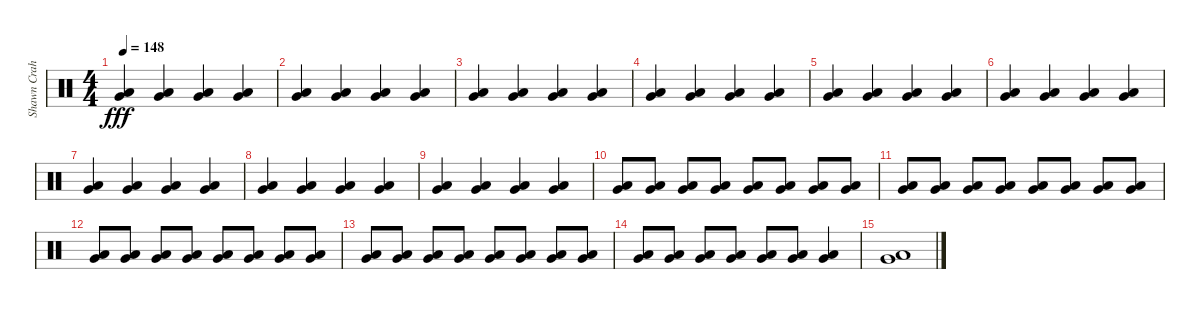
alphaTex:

\track ("Shawn Crahan" "Shawn Crah") {instrument percussion}
\staff {score}
\articulation defaults
\ts (4 4)
\tempo 148
\clef neutral
\ks c
("Very Low Tom (hit)" "Low Floor Tom (hit)").4{dy fff} ("Very Low Tom (hit)" "Low Floor Tom (hit)").4 ("Very Low Tom (hit)" "Low Floor Tom (hit)").4 ("Very Low Tom (hit)" "Low Floor Tom (hit)").4 |
("Very Low Tom (hit)" "Low Floor Tom (hit)").4 ("Very Low Tom (hit)" "Low Floor Tom (hit)").4 ("Very Low Tom (hit)" "Low Floor Tom (hit)").4 ("Very Low Tom (hit)" "Low Floor Tom (hit)").4 |
("Very Low Tom (hit)" "Low Floor Tom (hit)").4 ("Very Low Tom (hit)" "Low Floor Tom (hit)").4 ("Very Low Tom (hit)" "Low Floor Tom (hit)").4 ("Very Low Tom (hit)" "Low Floor Tom (hit)").4 |
("Very Low Tom (hit)" "Low Floor Tom (hit)").4 ("Very Low Tom (hit)" "Low Floor Tom (hit)").4 ("Very Low Tom (hit)" "Low Floor Tom (hit)").4 ("Very Low Tom (hit)" "Low Floor Tom (hit)").4 |
("Very Low Tom (hit)" "Low Floor Tom (hit)").4 ("Very Low Tom (hit)" "Low Floor Tom (hit)").4 ("Very Low Tom (hit)" "Low Floor Tom (hit)").4 ("Very Low Tom (hit)" "Low Floor Tom (hit)").4 |
("Very Low Tom (hit)" "Low Floor Tom (hit)").4 ("Very Low Tom (hit)" "Low Floor Tom (hit)").4 ("Very Low Tom (hit)" "Low Floor Tom (hit)").4 ("Very Low Tom (hit)" "Low Floor Tom (hit)").4 |
("Very Low Tom (hit)" "Low Floor Tom (hit)").4 ("Very Low Tom (hit)" "Low Floor Tom (hit)").4 ("Very Low Tom (hit)" "Low Floor Tom (hit)").4 ("Very Low Tom (hit)" "Low Floor Tom (hit)").4 |
("Very Low Tom (hit)" "Low Floor Tom (hit)").4 ("Very Low Tom (hit)" "Low Floor Tom (hit)").4 ("Very Low Tom (hit)" "Low Floor Tom (hit)").4 ("Very Low Tom (hit)" "Low Floor Tom (hit)").4 |
("Very Low Tom (hit)" "Low Floor Tom (hit)").4 ("Very Low Tom (hit)" "Low Floor Tom (hit)").4 ("Very Low Tom (hit)" "Low Floor Tom (hit)").4 ("Very Low Tom (hit)" "Low Floor Tom (hit)").4 |
("Very Low Tom (hit)" "Low Floor Tom (hit)").8 ("Very Low Tom (hit)" "Low Floor Tom (hit)").8 ("Very Low Tom (hit)" "Low Floor Tom (hit)").8 ("Very Low Tom (hit)" "Low Floor Tom (hit)").8 ("Very Low Tom (hit)" "Low Floor Tom (hit)").8 ("Very Low Tom (hit)" "Low Floor Tom (hit)").8 ("Very Low Tom (hit)" "Low Floor Tom (hit)").8 ("Very Low Tom (hit)" "Low Floor Tom (hit)").8 |
("Very Low Tom (hit)" "Low Floor Tom (hit)").8 ("Very Low Tom (hit)" "Low Floor Tom (hit)").8 ("Very Low Tom (hit)" "Low Floor Tom (hit)").8 ("Very Low Tom (hit)" "Low Floor Tom (hit)").8 ("Very Low Tom (hit)" "Low Floor Tom (hit)").8 ("Very Low Tom (hit)" "Low Floor Tom (hit)").8 ("Very Low Tom (hit)" "Low Floor Tom (hit)").8 ("Very Low Tom (hit)" "Low Floor Tom (hit)").8 |
("Very Low Tom (hit)" "Low Floor Tom (hit)").8 ("Very Low Tom (hit)" "Low Floor Tom (hit)").8 ("Very Low Tom (hit)" "Low Floor Tom (hit)").8 ("Very Low Tom (hit)" "Low Floor Tom (hit)").8 ("Very Low Tom (hit)" "Low Floor Tom (hit)").8 ("Very Low Tom (hit)" "Low Floor Tom (hit)").8 ("Very Low Tom (hit)" "Low Floor Tom (hit)").8 ("Very Low Tom (hit)" "Low Floor Tom (hit)").8 |
("Very Low Tom (hit)" "Low Floor Tom (hit)").8 ("Very Low Tom (hit)" "Low Floor Tom (hit)").8 ("Very Low Tom (hit)" "Low Floor Tom (hit)").8 ("Very Low Tom (hit)" "Low Floor Tom (hit)").8 ("Very Low Tom (hit)" "Low Floor Tom (hit)").8 ("Very Low Tom (hit)" "Low Floor Tom (hit)").8 ("Very Low Tom (hit)" "Low Floor Tom (hit)").8 ("Very Low Tom (hit)" "Low Floor Tom (hit)").8 |
("Very Low Tom (hit)" "Low Floor Tom (hit)").8 ("Very Low Tom (hit)" "Low Floor Tom (hit)").8 ("Very Low Tom (hit)" "Low Floor Tom (hit)").8 ("Very Low Tom (hit)" "Low Floor Tom (hit)").8 ("Very Low Tom (hit)" "Low Floor Tom (hit)").8 ("Very Low Tom (hit)" "Low Floor Tom (hit)").8 ("Very Low Tom (hit)" "Low Floor Tom (hit)").4 |
("Very Low Tom (hit)" "Low Floor Tom (hit)").1
